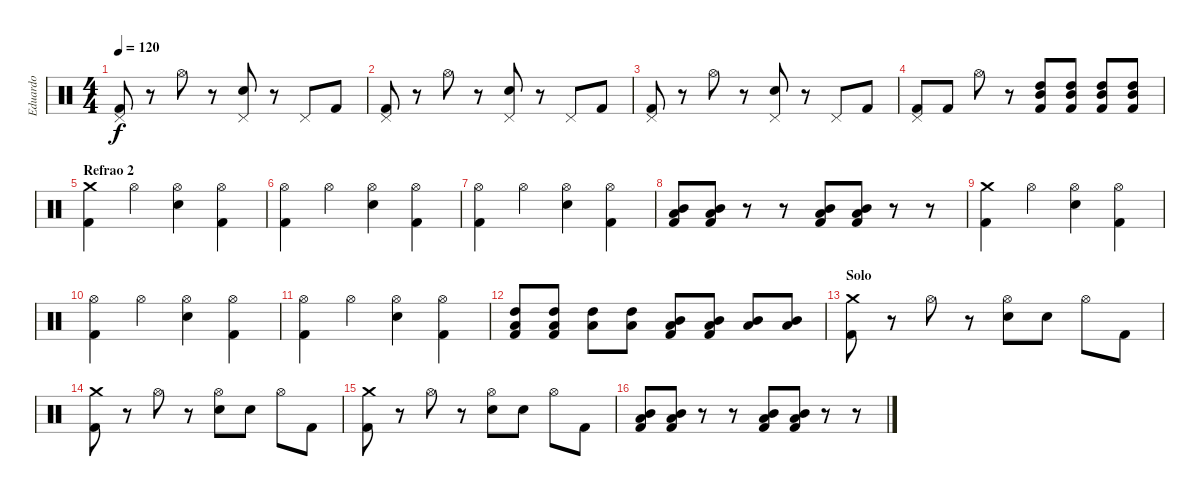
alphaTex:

\track ("Eduardo" "Eduardo") {instrument percussion}
\staff {score}
\articulation defaults
\ts (4 4)
\tempo 120
\clef neutral
\ks c
("Pedal Hi-Hat (hit)" "Kick (hit) 2").8{dy f} r.8 "Hi-Hat (open)".8 r.8 ("Pedal Hi-Hat (hit)" "Snare (hit) 2").8 r.8 "Pedal Hi-Hat (hit)".8 "Kick (hit) 2".8 |
("Pedal Hi-Hat (hit)" "Kick (hit) 2").8 r.8 "Hi-Hat (open)".8 r.8 ("Pedal Hi-Hat (hit)" "Snare (hit) 2").8 r.8 "Pedal Hi-Hat (hit)".8 "Kick (hit) 2".8 |
("Pedal Hi-Hat (hit)" "Kick (hit) 2").8 r.8 "Hi-Hat (open)".8 r.8 ("Pedal Hi-Hat (hit)" "Snare (hit) 2").8 r.8 "Pedal Hi-Hat (hit)".8 "Kick (hit) 2".8 |
("Pedal Hi-Hat (hit)" "Kick (hit) 2").8 "Kick (hit) 2".8 "Hi-Hat (open)".8 r.8 ("Mid Tom (hit)" "High Tom (hit)" "Kick (hit) 2").8 ("Mid Tom (hit)" "High Tom (hit)" "Kick (hit) 2").8 ("Mid Tom (hit)" "High Tom (hit)" "Kick (hit) 2").8 ("Mid Tom (hit)" "High Tom (hit)" "Kick (hit) 2").8 |
\section ("" "Refrao 2")
("Crash medium (hit)" "Kick (hit) 2").4 "Hi-Hat (open)".4 ("Hi-Hat (open)" "Snare (hit) 2").4 ("Hi-Hat (open)" "Kick (hit) 2").4 |
("Hi-Hat (open)" "Kick (hit) 2").4 "Hi-Hat (open)".4 ("Hi-Hat (open)" "Snare (hit) 2").4 ("Hi-Hat (open)" "Kick (hit) 2").4 |
("Hi-Hat (open)" "Kick (hit) 2").4 "Hi-Hat (open)".4 ("Hi-Hat (open)" "Snare (hit) 2").4 ("Hi-Hat (open)" "Kick (hit) 2").4 |
("Mid Tom (hit)" "Low Tom (hit)" "Kick (hit) 2").8 ("Mid Tom (hit)" "Low Tom (hit)" "Kick (hit) 2").8 r.8 r.8 ("Mid Tom (hit)" "Low Tom (hit)" "Kick (hit) 2").8 ("Mid Tom (hit)" "Low Tom (hit)" "Kick (hit) 2").8 r.8 r.8 |
("Crash medium (hit)" "Kick (hit) 2").4 "Hi-Hat (open)".4 ("Hi-Hat (open)" "Snare (hit) 2").4 ("Hi-Hat (open)" "Kick (hit) 2").4 |
("Hi-Hat (open)" "Kick (hit) 2").4 "Hi-Hat (open)".4 ("Hi-Hat (open)" "Snare (hit) 2").4 ("Hi-Hat (open)" "Kick (hit) 2").4 |
("Hi-Hat (open)" "Kick (hit) 2").4 "Hi-Hat (open)".4 ("Hi-Hat (open)" "Snare (hit) 2").4 ("Hi-Hat (open)" "Kick (hit) 2").4 |
("High Tom (hit)" "Low Tom (hit)" "Kick (hit) 2").8 ("High Tom (hit)" "Low Tom (hit)" "Kick (hit) 2").8 ("High Tom (hit)" "Low Tom (hit)").8 ("High Tom (hit)" "Low Tom (hit)").8 ("Mid Tom (hit)" "Low Tom (hit)" "Kick (hit) 2").8 ("Mid Tom (hit)" "Low Tom (hit)" "Kick (hit) 2").8 ("Mid Tom (hit)" "Low Tom (hit)").8 ("Mid Tom (hit)" "Low Tom (hit)").8 |
\section ("" "Solo")
("Crash medium (hit)" "Kick (hit) 2").8 r.8 "Hi-Hat (open)".8 r.8 ("Hi-Hat (open)" "Snare (hit) 2").8 "Snare (hit) 2".8 "Hi-Hat (open)".8 "Kick (hit) 2".8 |
("Crash medium (hit)" "Kick (hit) 2").8 r.8 "Hi-Hat (open)".8 r.8 ("Hi-Hat (open)" "Snare (hit) 2").8 "Snare (hit) 2".8 "Hi-Hat (open)".8 "Kick (hit) 2".8 |
("Crash medium (hit)" "Kick (hit) 2").8 r.8 "Hi-Hat (open)".8 r.8 ("Hi-Hat (open)" "Snare (hit) 2").8 "Snare (hit) 2".8 "Hi-Hat (open)".8 "Kick (hit) 2".8 |
("Mid Tom (hit)" "Low Tom (hit)" "Kick (hit) 2").8 ("Mid Tom (hit)" "Low Tom (hit)" "Kick (hit) 2").8 r.8 r.8 ("Mid Tom (hit)" "Low Tom (hit)" "Kick (hit) 2").8 ("Mid Tom (hit)" "Low Tom (hit)" "Kick (hit) 2").8 r.8 r.8
